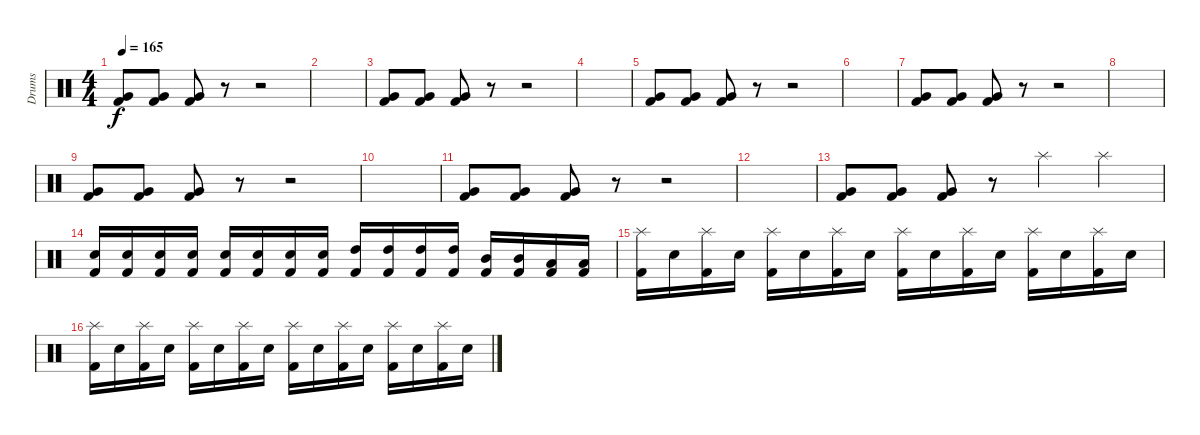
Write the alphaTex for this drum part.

\track ("Drums" "Drums") {instrument percussion}
\staff {score}
\articulation defaults
\ts (4 4)
\tempo 165
\clef neutral
\ks c
("Very Low Tom (hit)" "Kick (hit) 2").8{dy f} ("Very Low Tom (hit)" "Kick (hit) 2").8 ("Very Low Tom (hit)" "Kick (hit) 2").8 r.8 r.2 |
|
("Very Low Tom (hit)" "Kick (hit) 2").8 ("Very Low Tom (hit)" "Kick (hit) 2").8 ("Very Low Tom (hit)" "Kick (hit) 2").8 r.8 r.2 |
|
("Very Low Tom (hit)" "Kick (hit) 2").8 ("Very Low Tom (hit)" "Kick (hit) 2").8 ("Very Low Tom (hit)" "Kick (hit) 2").8 r.8 r.2 |
|
("Very Low Tom (hit)" "Kick (hit) 2").8 ("Very Low Tom (hit)" "Kick (hit) 2").8 ("Very Low Tom (hit)" "Kick (hit) 2").8 r.8 r.2 |
|
("Very Low Tom (hit)" "Kick (hit) 2").8 ("Very Low Tom (hit)" "Kick (hit) 2").8 ("Very Low Tom (hit)" "Kick (hit) 2").8 r.8 r.2 |
|
("Very Low Tom (hit)" "Kick (hit) 2").8 ("Very Low Tom (hit)" "Kick (hit) 2").8 ("Very Low Tom (hit)" "Kick (hit) 2").8 r.8 r.2 |
|
("Very Low Tom (hit)" "Kick (hit) 2").8 ("Very Low Tom (hit)" "Kick (hit) 2").8 ("Very Low Tom (hit)" "Kick (hit) 2").8 r.8 "Splash (hit)".4 "Splash (hit)".4 |
("Snare (hit) 2" "Kick (hit) 2").16 ("Snare (hit) 2" "Kick (hit) 2").16 ("Snare (hit) 2" "Kick (hit) 2").16 ("Snare (hit) 2" "Kick (hit) 2").16 ("Snare (hit) 2" "Kick (hit) 2").16 ("Snare (hit) 2" "Kick (hit) 2").16 ("Snare (hit) 2" "Kick (hit) 2").16 ("Snare (hit) 2" "Kick (hit) 2").16 ("High Tom (hit)" "Kick (hit) 2").16 ("High Tom (hit)" "Kick (hit) 2").16 ("High Tom (hit)" "Kick (hit) 2").16 ("High Tom (hit)" "Kick (hit) 2").16 ("Mid Tom (hit)" "Kick (hit) 2").16 ("Mid Tom (hit)" "Kick (hit) 2").16 ("Low Tom (hit)" "Kick (hit) 2").16 ("Low Tom (hit)" "Kick (hit) 2").16 |
("Splash (hit)" "Kick (hit) 2").16 "Snare (hit) 2".16 ("Splash (hit)" "Kick (hit) 2").16 "Snare (hit) 2".16 ("Splash (hit)" "Kick (hit) 2").16 "Snare (hit) 2".16 ("Splash (hit)" "Kick (hit) 2").16 "Snare (hit) 2".16 ("Splash (hit)" "Kick (hit) 2").16 "Snare (hit) 2".16 ("Splash (hit)" "Kick (hit) 2").16 "Snare (hit) 2".16 ("Splash (hit)" "Kick (hit) 2").16 "Snare (hit) 2".16 ("Splash (hit)" "Kick (hit) 2").16 "Snare (hit) 2".16 |
("Splash (hit)" "Kick (hit) 2").16 "Snare (hit) 2".16 ("Splash (hit)" "Kick (hit) 2").16 "Snare (hit) 2".16 ("Splash (hit)" "Kick (hit) 2").16 "Snare (hit) 2".16 ("Splash (hit)" "Kick (hit) 2").16 "Snare (hit) 2".16 ("Splash (hit)" "Kick (hit) 2").16 "Snare (hit) 2".16 ("Splash (hit)" "Kick (hit) 2").16 "Snare (hit) 2".16 ("Splash (hit)" "Kick (hit) 2").16 "Snare (hit) 2".16 ("Splash (hit)" "Kick (hit) 2").16 "Snare (hit) 2".16
